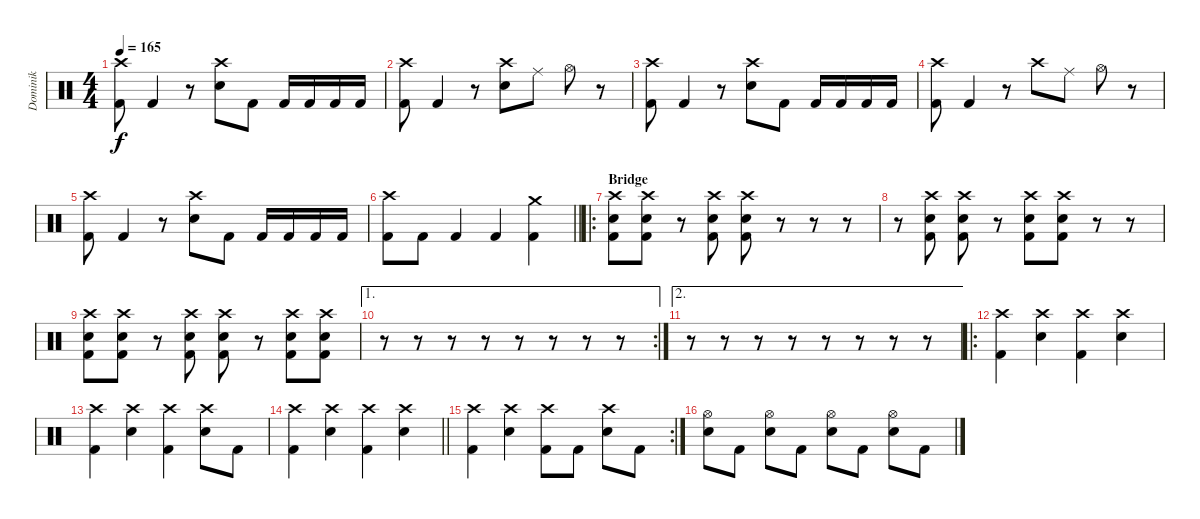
\track ("Dominik" "Dominik") {instrument percussion}
\staff {score}
\articulation defaults
\ts (4 4)
\tempo 165
\clef neutral
\ks c
("Crash high (hit)" "Kick (hit) 2").8{dy f} "Kick (hit) 2".4 r.8 ("Crash high (hit)" "Electric Snare (hit)").8 "Kick (hit) 2".8 "Kick (hit) 2".16 "Kick (hit) 2".16 "Kick (hit) 2".16 "Kick (hit) 2".16 |
("Crash high (hit)" "Kick (hit) 2").8 "Kick (hit) 2".4 r.8 ("Crash high (hit)" "Electric Snare (hit)").8 "Ride (middle)".8 "Hi-Hat (open)".8 r.8 |
("Crash high (hit)" "Kick (hit) 2").8 "Kick (hit) 2".4 r.8 ("Crash high (hit)" "Electric Snare (hit)").8 "Kick (hit) 2".8 "Kick (hit) 2".16 "Kick (hit) 2".16 "Kick (hit) 2".16 "Kick (hit) 2".16 |
("Crash high (hit)" "Kick (hit) 2").8 "Kick (hit) 2".4 r.8 "Crash high (hit)".8 "Ride (middle)".8 "Hi-Hat (open)".8 r.8 |
("Crash high (hit)" "Kick (hit) 2").8 "Kick (hit) 2".4 r.8 ("Crash high (hit)" "Electric Snare (hit)").8 "Kick (hit) 2".8 "Kick (hit) 2".16 "Kick (hit) 2".16 "Kick (hit) 2".16 "Kick (hit) 2".16 |
\barLineRight lightlight
("Crash high (hit)" "Kick (hit) 2").8 "Kick (hit) 2".8 "Kick (hit) 2".4 "Kick (hit) 2".4 ("Crash medium (hit)" "Kick (hit) 2").4 |
\ro
\section ("" "Bridge")
("Crash high (hit)" "Electric Snare (hit)" "Kick (hit) 2").8 ("Crash high (hit)" "Electric Snare (hit)" "Kick (hit) 2").8 r.8 ("Crash high (hit)" "Electric Snare (hit)" "Kick (hit) 2").8 ("Crash high (hit)" "Electric Snare (hit)" "Kick (hit) 2").8 r.8 r.8 r.8 |
r.8 ("Crash high (hit)" "Electric Snare (hit)" "Kick (hit) 2").8 ("Crash high (hit)" "Electric Snare (hit)" "Kick (hit) 2").8 r.8 ("Crash high (hit)" "Electric Snare (hit)" "Kick (hit) 2").8 ("Crash high (hit)" "Electric Snare (hit)" "Kick (hit) 2").8 r.8 r.8 |
("Crash high (hit)" "Electric Snare (hit)" "Kick (hit) 2").8 ("Crash high (hit)" "Electric Snare (hit)" "Kick (hit) 2").8 r.8 ("Crash high (hit)" "Electric Snare (hit)" "Kick (hit) 2").8 ("Crash high (hit)" "Electric Snare (hit)" "Kick (hit) 2").8 r.8 ("Crash high (hit)" "Electric Snare (hit)" "Kick (hit) 2").8 ("Crash high (hit)" "Electric Snare (hit)" "Kick (hit) 2").8 |
\ae 1
\rc 2
r.8 r.8 r.8 r.8 r.8 r.8 r.8 r.8 |
\ae 2
r.8 r.8 r.8 r.8 r.8 r.8 r.8 r.8 |
\ro
("Crash high (hit)" "Kick (hit) 2").4 ("Crash high (hit)" "Electric Snare (hit)").4 ("Crash high (hit)" "Kick (hit) 2").4 ("Crash high (hit)" "Electric Snare (hit)").4 |
("Crash high (hit)" "Kick (hit) 2").4 ("Crash high (hit)" "Electric Snare (hit)").4 ("Crash high (hit)" "Kick (hit) 2").4 ("Crash high (hit)" "Electric Snare (hit)").8 "Kick (hit) 2".8 |
\barLineRight lightlight
("Crash high (hit)" "Kick (hit) 2").4 ("Crash high (hit)" "Electric Snare (hit)").4 ("Crash high (hit)" "Kick (hit) 2").4 ("Crash high (hit)" "Electric Snare (hit)").4 |
\rc 2
("Crash high (hit)" "Kick (hit) 2").4 ("Crash high (hit)" "Electric Snare (hit)").4 ("Crash high (hit)" "Kick (hit) 2").8 "Kick (hit) 2".8 ("Crash high (hit)" "Electric Snare (hit)").8 "Kick (hit) 2".8 |
("Hi-Hat (open)" "Electric Snare (hit)").8 "Kick (hit) 2".8 ("Hi-Hat (open)" "Electric Snare (hit)").8 "Kick (hit) 2".8 ("Hi-Hat (open)" "Electric Snare (hit)").8 "Kick (hit) 2".8 ("Hi-Hat (open)" "Electric Snare (hit)").8 "Kick (hit) 2".8
